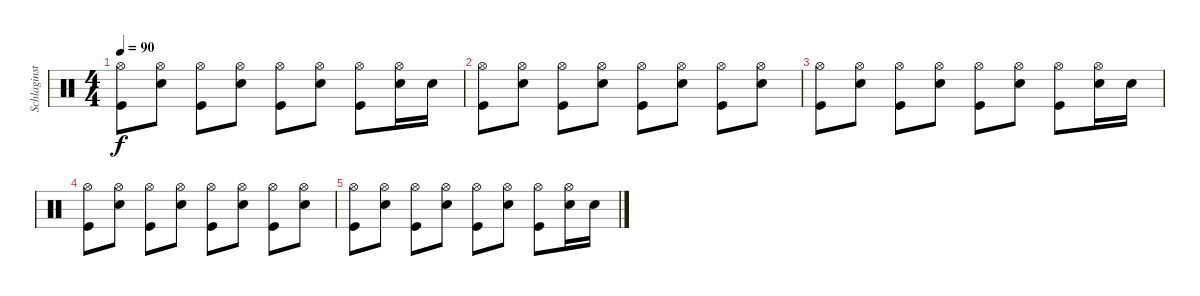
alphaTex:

\track ("Schlaginstrumente - Auswahl" "Schlaginst") {instrument percussion}
\staff {score}
\articulation defaults
\ts (4 4)
\tempo 90
\clef neutral
\ks c
("Hi-Hat (open)" "Kick (hit)").8{dy f} ("Hi-Hat (open)" "Snare (hit) 2").8 ("Hi-Hat (open)" "Kick (hit)").8 ("Hi-Hat (open)" "Snare (hit) 2").8 ("Hi-Hat (open)" "Kick (hit)").8 ("Hi-Hat (open)" "Snare (hit) 2").8 ("Hi-Hat (open)" "Kick (hit)").8 ("Hi-Hat (open)" "Snare (hit) 2").16 "Snare (hit) 2".16 |
("Hi-Hat (open)" "Kick (hit)").8 ("Hi-Hat (open)" "Snare (hit) 2").8 ("Hi-Hat (open)" "Kick (hit)").8 ("Hi-Hat (open)" "Snare (hit) 2").8 ("Hi-Hat (open)" "Kick (hit)").8 ("Hi-Hat (open)" "Snare (hit) 2").8 ("Hi-Hat (open)" "Kick (hit)").8 ("Hi-Hat (open)" "Snare (hit) 2").8 |
("Hi-Hat (open)" "Kick (hit)").8 ("Hi-Hat (open)" "Snare (hit) 2").8 ("Hi-Hat (open)" "Kick (hit)").8 ("Hi-Hat (open)" "Snare (hit) 2").8 ("Hi-Hat (open)" "Kick (hit)").8 ("Hi-Hat (open)" "Snare (hit) 2").8 ("Hi-Hat (open)" "Kick (hit)").8 ("Hi-Hat (open)" "Snare (hit) 2").16 "Snare (hit) 2".16 |
("Hi-Hat (open)" "Kick (hit)").8 ("Hi-Hat (open)" "Snare (hit) 2").8 ("Hi-Hat (open)" "Kick (hit)").8 ("Hi-Hat (open)" "Snare (hit) 2").8 ("Hi-Hat (open)" "Kick (hit)").8 ("Hi-Hat (open)" "Snare (hit) 2").8 ("Hi-Hat (open)" "Kick (hit)").8 ("Hi-Hat (open)" "Snare (hit) 2").8 |
("Hi-Hat (open)" "Kick (hit)").8 ("Hi-Hat (open)" "Snare (hit) 2").8 ("Hi-Hat (open)" "Kick (hit)").8 ("Hi-Hat (open)" "Snare (hit) 2").8 ("Hi-Hat (open)" "Kick (hit)").8 ("Hi-Hat (open)" "Snare (hit) 2").8 ("Hi-Hat (open)" "Kick (hit)").8 ("Hi-Hat (open)" "Snare (hit) 2").16 "Snare (hit) 2".16
